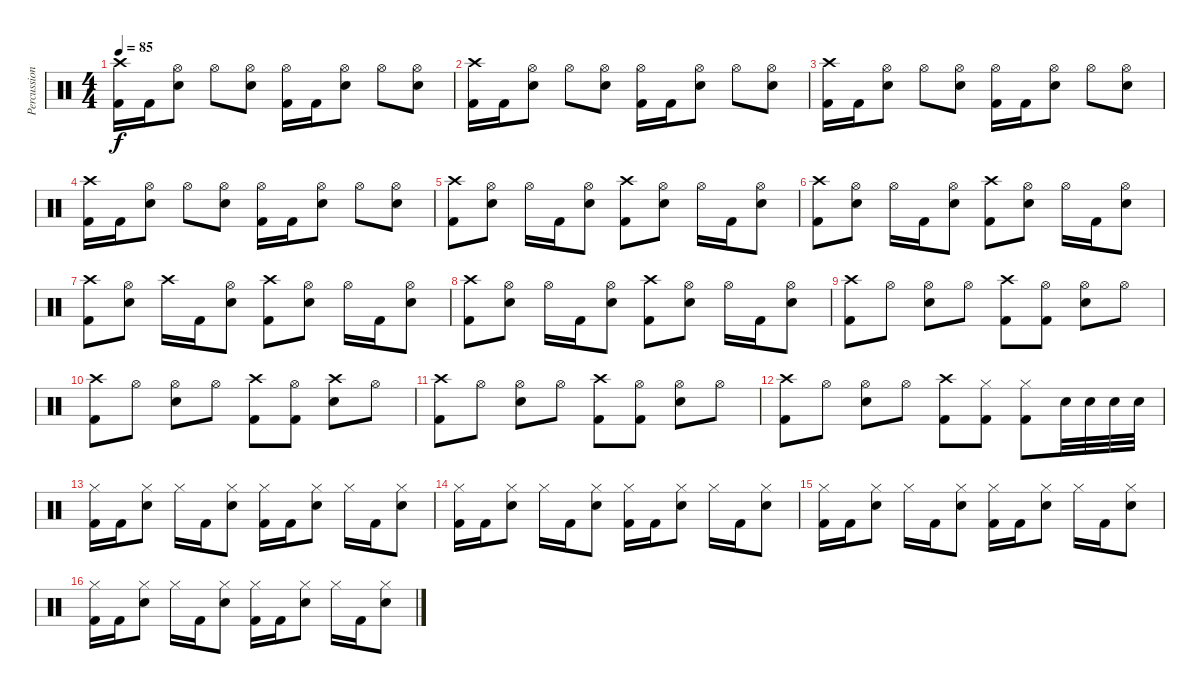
\track ("Percussion" "Percussion") {instrument percussion}
\staff {score}
\articulation defaults
\ts (4 4)
\tempo 85
\clef neutral
\ks c
("Crash high (hit)" "Kick (hit) 2").16{dy f} "Kick (hit) 2".16 ("Hi-Hat (open)" "Snare (hit) 2").8 "Hi-Hat (open)".8 ("Hi-Hat (open)" "Snare (hit) 2").8 ("Hi-Hat (open)" "Kick (hit) 2").16 "Kick (hit) 2".16 ("Hi-Hat (open)" "Snare (hit) 2").8 "Hi-Hat (open)".8 ("Hi-Hat (open)" "Snare (hit) 2").8 |
("Crash high (hit)" "Kick (hit) 2").16 "Kick (hit) 2".16 ("Hi-Hat (open)" "Snare (hit) 2").8 "Hi-Hat (open)".8 ("Hi-Hat (open)" "Snare (hit) 2").8 ("Hi-Hat (open)" "Kick (hit) 2").16 "Kick (hit) 2".16 ("Hi-Hat (open)" "Snare (hit) 2").8 "Hi-Hat (open)".8 ("Hi-Hat (open)" "Snare (hit) 2").8 |
("Crash high (hit)" "Kick (hit) 2").16 "Kick (hit) 2".16 ("Hi-Hat (open)" "Snare (hit) 2").8 "Hi-Hat (open)".8 ("Hi-Hat (open)" "Snare (hit) 2").8 ("Hi-Hat (open)" "Kick (hit) 2").16 "Kick (hit) 2".16 ("Hi-Hat (open)" "Snare (hit) 2").8 "Hi-Hat (open)".8 ("Hi-Hat (open)" "Snare (hit) 2").8 |
("Crash high (hit)" "Kick (hit) 2").16 "Kick (hit) 2".16 ("Hi-Hat (open)" "Snare (hit) 2").8 "Hi-Hat (open)".8 ("Hi-Hat (open)" "Snare (hit) 2").8 ("Hi-Hat (open)" "Kick (hit) 2").16 "Kick (hit) 2".16 ("Hi-Hat (open)" "Snare (hit) 2").8 "Hi-Hat (open)".8 ("Hi-Hat (open)" "Snare (hit) 2").8 |
("Crash high (hit)" "Kick (hit) 2").8 ("Hi-Hat (open)" "Snare (hit) 2").8 "Hi-Hat (open)".16 "Kick (hit) 2".16 ("Hi-Hat (open)" "Snare (hit) 2").8 ("Crash high (hit)" "Kick (hit) 2").8 ("Hi-Hat (open)" "Snare (hit) 2").8 "Hi-Hat (open)".16 "Kick (hit) 2".16 ("Hi-Hat (open)" "Snare (hit) 2").8 |
("Crash high (hit)" "Kick (hit) 2").8 ("Hi-Hat (open)" "Snare (hit) 2").8 "Hi-Hat (open)".16 "Kick (hit) 2".16 ("Hi-Hat (open)" "Snare (hit) 2").8 ("Crash high (hit)" "Kick (hit) 2").8 ("Hi-Hat (open)" "Snare (hit) 2").8 "Hi-Hat (open)".16 "Kick (hit) 2".16 ("Hi-Hat (open)" "Snare (hit) 2").8 |
("Crash high (hit)" "Kick (hit) 2").8 ("Hi-Hat (open)" "Snare (hit) 2").8 "Crash high (hit)".16 "Kick (hit) 2".16 ("Hi-Hat (open)" "Snare (hit) 2").8 ("Crash high (hit)" "Kick (hit) 2").8 ("Hi-Hat (open)" "Snare (hit) 2").8 "Hi-Hat (open)".16 "Kick (hit) 2".16 ("Hi-Hat (open)" "Snare (hit) 2").8 |
("Crash high (hit)" "Kick (hit) 2").8 ("Hi-Hat (open)" "Snare (hit) 2").8 "Hi-Hat (open)".16 "Kick (hit) 2".16 ("Hi-Hat (open)" "Snare (hit) 2").8 ("Crash high (hit)" "Kick (hit) 2").8 ("Hi-Hat (open)" "Snare (hit) 2").8 "Hi-Hat (open)".16 "Kick (hit) 2".16 ("Hi-Hat (open)" "Snare (hit) 2").8 |
("Crash high (hit)" "Kick (hit) 2").8 "Hi-Hat (open)".8 ("Hi-Hat (open)" "Snare (hit) 2").8 "Hi-Hat (open)".8 ("Crash high (hit)" "Kick (hit) 2").8 ("Hi-Hat (open)" "Kick (hit) 2").8 ("Hi-Hat (open)" "Snare (hit) 2").8 "Hi-Hat (open)".8 |
("Crash high (hit)" "Kick (hit) 2").8 "Hi-Hat (open)".8 ("Hi-Hat (open)" "Snare (hit) 2").8 "Hi-Hat (open)".8 ("Crash high (hit)" "Kick (hit) 2").8 ("Hi-Hat (open)" "Kick (hit) 2").8 ("Crash high (hit)" "Snare (hit) 2").8 "Hi-Hat (open)".8 |
("Crash high (hit)" "Kick (hit) 2").8 "Hi-Hat (open)".8 ("Hi-Hat (open)" "Snare (hit) 2").8 "Hi-Hat (open)".8 ("Crash high (hit)" "Kick (hit) 2").8 ("Hi-Hat (open)" "Kick (hit) 2").8 ("Hi-Hat (open)" "Snare (hit) 2").8 "Hi-Hat (open)".8 |
("Crash high (hit)" "Kick (hit) 2").8 "Hi-Hat (open)".8 ("Hi-Hat (open)" "Snare (hit) 2").8 "Hi-Hat (open)".8 ("Crash high (hit)" "Kick (hit) 2").8 ("Hi-Hat (closed)" "Kick (hit) 2").8 ("Hi-Hat (closed)" "Kick (hit) 2").8 "Snare (hit) 2".32 "Snare (hit) 2".32 "Snare (hit) 2".32 "Snare (hit) 2".32 |
("Hi-Hat (closed)" "Kick (hit) 2").16 "Kick (hit) 2".16 ("Hi-Hat (closed)" "Snare (hit) 2").8 "Hi-Hat (closed)".16 "Kick (hit) 2".16 ("Hi-Hat (closed)" "Snare (hit) 2").8 ("Hi-Hat (closed)" "Kick (hit) 2").16 "Kick (hit) 2".16 ("Hi-Hat (closed)" "Snare (hit) 2").8 "Hi-Hat (closed)".16 "Kick (hit) 2".16 ("Hi-Hat (closed)" "Snare (hit) 2").8 |
("Hi-Hat (closed)" "Kick (hit) 2").16 "Kick (hit) 2".16 ("Hi-Hat (closed)" "Snare (hit) 2").8 "Hi-Hat (closed)".16 "Kick (hit) 2".16 ("Hi-Hat (closed)" "Snare (hit) 2").8 ("Hi-Hat (closed)" "Kick (hit) 2").16 "Kick (hit) 2".16 ("Hi-Hat (closed)" "Snare (hit) 2").8 "Hi-Hat (closed)".16 "Kick (hit) 2".16 ("Hi-Hat (closed)" "Snare (hit) 2").8 |
("Hi-Hat (closed)" "Kick (hit) 2").16 "Kick (hit) 2".16 ("Hi-Hat (closed)" "Snare (hit) 2").8 "Hi-Hat (closed)".16 "Kick (hit) 2".16 ("Hi-Hat (closed)" "Snare (hit) 2").8 ("Hi-Hat (closed)" "Kick (hit) 2").16 "Kick (hit) 2".16 ("Hi-Hat (closed)" "Snare (hit) 2").8 "Hi-Hat (closed)".16 "Kick (hit) 2".16 ("Hi-Hat (closed)" "Snare (hit) 2").8 |
("Hi-Hat (closed)" "Kick (hit) 2").16 "Kick (hit) 2".16 ("Hi-Hat (closed)" "Snare (hit) 2").8 "Hi-Hat (closed)".16 "Kick (hit) 2".16 ("Hi-Hat (closed)" "Snare (hit) 2").8 ("Hi-Hat (closed)" "Kick (hit) 2").16 "Kick (hit) 2".16 ("Hi-Hat (closed)" "Snare (hit) 2").8 "Hi-Hat (closed)".16 "Kick (hit) 2".16 ("Hi-Hat (closed)" "Snare (hit) 2").8
